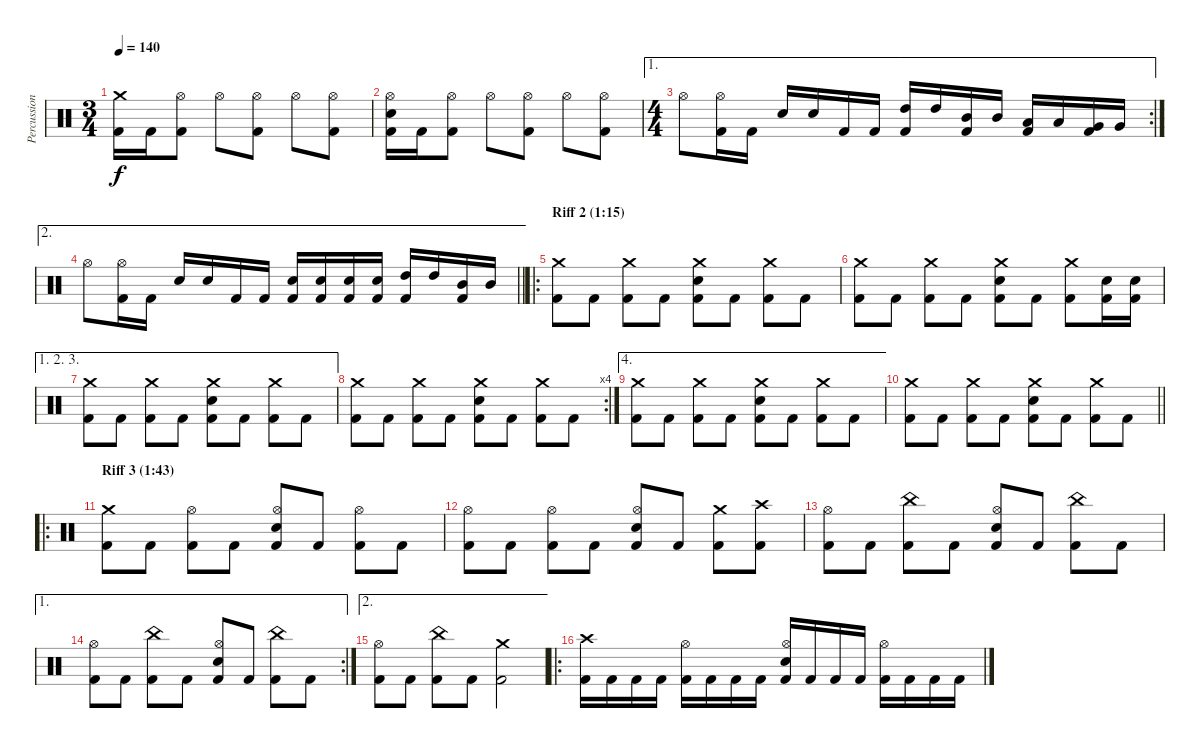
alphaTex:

\track ("Percussion" "Percussion") {instrument percussion}
\staff {score}
\articulation defaults
\ts (3 4)
\tempo 140
\clef neutral
\ks c
("Crash medium (hit)" "Kick (hit) 2").16{dy f} "Kick (hit) 2".16 ("Hi-Hat (open)" "Kick (hit) 2").8 "Hi-Hat (open)".8 ("Hi-Hat (open)" "Kick (hit) 2").8 "Hi-Hat (open)".8 ("Hi-Hat (open)" "Kick (hit) 2").8 |
("Hi-Hat (open)" "Electric Snare (hit)" "Kick (hit) 2").16 "Kick (hit) 2".16 ("Hi-Hat (open)" "Kick (hit) 2").8 "Hi-Hat (open)".8 ("Hi-Hat (open)" "Kick (hit) 2").8 "Hi-Hat (open)".8 ("Hi-Hat (open)" "Kick (hit) 2").8 |
\ae 1
\rc 2
\ts (4 4)
"Hi-Hat (open)".8 ("Hi-Hat (open)" "Kick (hit) 2").16 "Kick (hit) 2".16 "Electric Snare (hit)".16 "Electric Snare (hit)".16 "Kick (hit) 2".16 "Kick (hit) 2".16 ("High Tom (hit)" "Kick (hit) 2").16 "High Tom (hit)".16 ("Mid Tom (hit)" "Kick (hit) 2").16 "Mid Tom (hit)".16 ("Low Tom (hit)" "Kick (hit) 2").16 "Low Tom (hit)".16 ("Very Low Tom (hit)" "Kick (hit) 2").16 "Very Low Tom (hit)".16 |
\ae 2
\barLineRight lightlight "Hi-Hat (open)".8
("Hi-Hat (open)" "Kick (hit) 2").16 "Kick (hit) 2".16 "Electric Snare (hit)".16 "Electric Snare (hit)".16 "Kick (hit) 2".16 "Kick (hit) 2".16 ("Electric Snare (hit)" "Kick (hit) 2").16 ("Electric Snare (hit)" "Kick (hit) 2").16 ("Electric Snare (hit)" "Kick (hit) 2").16 ("Electric Snare (hit)" "Kick (hit) 2").16 ("High Tom (hit)" "Kick (hit) 2").16 "High Tom (hit)".16 ("Mid Tom (hit)" "Kick (hit) 2").16 "Mid Tom (hit)".16 |
\ro
\section ("" "Riff 2 (1:15)")
("Crash medium (hit)" "Kick (hit) 2").8 "Kick (hit) 2".8 ("Crash medium (hit)" "Kick (hit) 2").8 "Kick (hit) 2".8 ("Crash medium (hit)" "Electric Snare (hit)" "Kick (hit) 2").8 "Kick (hit) 2".8 ("Crash medium (hit)" "Kick (hit) 2").8 "Kick (hit) 2".8 |
("Crash medium (hit)" "Kick (hit) 2").8 "Kick (hit) 2".8 ("Crash medium (hit)" "Kick (hit) 2").8 "Kick (hit) 2".8 ("Crash medium (hit)" "Electric Snare (hit)" "Kick (hit) 2").8 "Kick (hit) 2".8 ("Crash medium (hit)" "Kick (hit) 2").8 ("Electric Snare (hit)" "Kick (hit) 2").16 ("Electric Snare (hit)" "Kick (hit) 2").16 |
\ae (1 2 3)
("Crash medium (hit)" "Kick (hit) 2").8 "Kick (hit) 2".8 ("Crash medium (hit)" "Kick (hit) 2").8 "Kick (hit) 2".8 ("Crash medium (hit)" "Electric Snare (hit)" "Kick (hit) 2").8 "Kick (hit) 2".8 ("Crash medium (hit)" "Kick (hit) 2").8 "Kick (hit) 2".8 |
\rc 4
("Crash medium (hit)" "Kick (hit) 2").8 "Kick (hit) 2".8 ("Crash medium (hit)" "Kick (hit) 2").8 "Kick (hit) 2".8 ("Crash medium (hit)" "Electric Snare (hit)" "Kick (hit) 2").8 "Kick (hit) 2".8 ("Crash medium (hit)" "Kick (hit) 2").8 "Kick (hit) 2".8 |
\ae 4
("Crash medium (hit)" "Kick (hit) 2").8 "Kick (hit) 2".8 ("Crash medium (hit)" "Kick (hit) 2").8 "Kick (hit) 2".8 ("Crash medium (hit)" "Electric Snare (hit)" "Kick (hit) 2").8 "Kick (hit) 2".8 ("Crash medium (hit)" "Kick (hit) 2").8 "Kick (hit) 2".8 |
\barLineRight lightlight
("Crash medium (hit)" "Kick (hit) 2").8 "Kick (hit) 2".8 ("Crash medium (hit)" "Kick (hit) 2").8 "Kick (hit) 2".8 ("Crash medium (hit)" "Electric Snare (hit)" "Kick (hit) 2").8 "Kick (hit) 2".8 ("Crash medium (hit)" "Kick (hit) 2").8 "Kick (hit) 2".8 |
\ro
\section ("" "Riff 3 (1:43)")
("Crash medium (hit)" "Kick (hit) 2").8 "Kick (hit) 2".8 ("Hi-Hat (open)" "Kick (hit) 2").8 "Kick (hit) 2".8 ("Hi-Hat (open)" "Electric Snare (hit)" "Kick (hit) 2").8 "Kick (hit) 2".8 ("Hi-Hat (open)" "Kick (hit) 2").8 "Kick (hit) 2".8 |
("Hi-Hat (open)" "Kick (hit) 2").8 "Kick (hit) 2".8 ("Hi-Hat (open)" "Kick (hit) 2").8 "Kick (hit) 2".8 ("Hi-Hat (open)" "Electric Snare (hit)" "Kick (hit) 2").8 "Kick (hit) 2".8 ("Crash medium (hit)" "Kick (hit) 2").8 ("Crash high (hit)" "Kick (hit) 2").8 |
("Hi-Hat (open)" "Kick (hit) 2").8 "Kick (hit) 2".8 ("China (hit)" "Kick (hit) 2").8 "Kick (hit) 2".8 ("Hi-Hat (open)" "Electric Snare (hit)" "Kick (hit) 2").8 "Kick (hit) 2".8 ("China (hit)" "Kick (hit) 2").8 "Kick (hit) 2".8 |
\ae 1
\rc 2
("Hi-Hat (open)" "Kick (hit) 2").8 "Kick (hit) 2".8 ("China (hit)" "Kick (hit) 2").8 "Kick (hit) 2".8 ("Hi-Hat (open)" "Electric Snare (hit)" "Kick (hit) 2").8 "Kick (hit) 2".8 ("China (hit)" "Kick (hit) 2").8 "Kick (hit) 2".8 |
\ae 2
("Hi-Hat (open)" "Kick (hit) 2").8 "Kick (hit) 2".8 ("China (hit)" "Kick (hit) 2").8 "Kick (hit) 2".8 ("Crash medium (hit)" "Kick (hit) 2").2 |
\ro
("Crash high (hit)" "Kick (hit) 2").16 "Kick (hit) 2".16 "Kick (hit) 2".16 "Kick (hit) 2".16 ("Hi-Hat (open)" "Kick (hit) 2").16 "Kick (hit) 2".16 "Kick (hit) 2".16 "Kick (hit) 2".16 ("Hi-Hat (open)" "Electric Snare (hit)" "Kick (hit) 2").16 "Kick (hit) 2".16 "Kick (hit) 2".16 "Kick (hit) 2".16 ("Hi-Hat (open)" "Kick (hit) 2").16 "Kick (hit) 2".16 "Kick (hit) 2".16 "Kick (hit) 2".16
